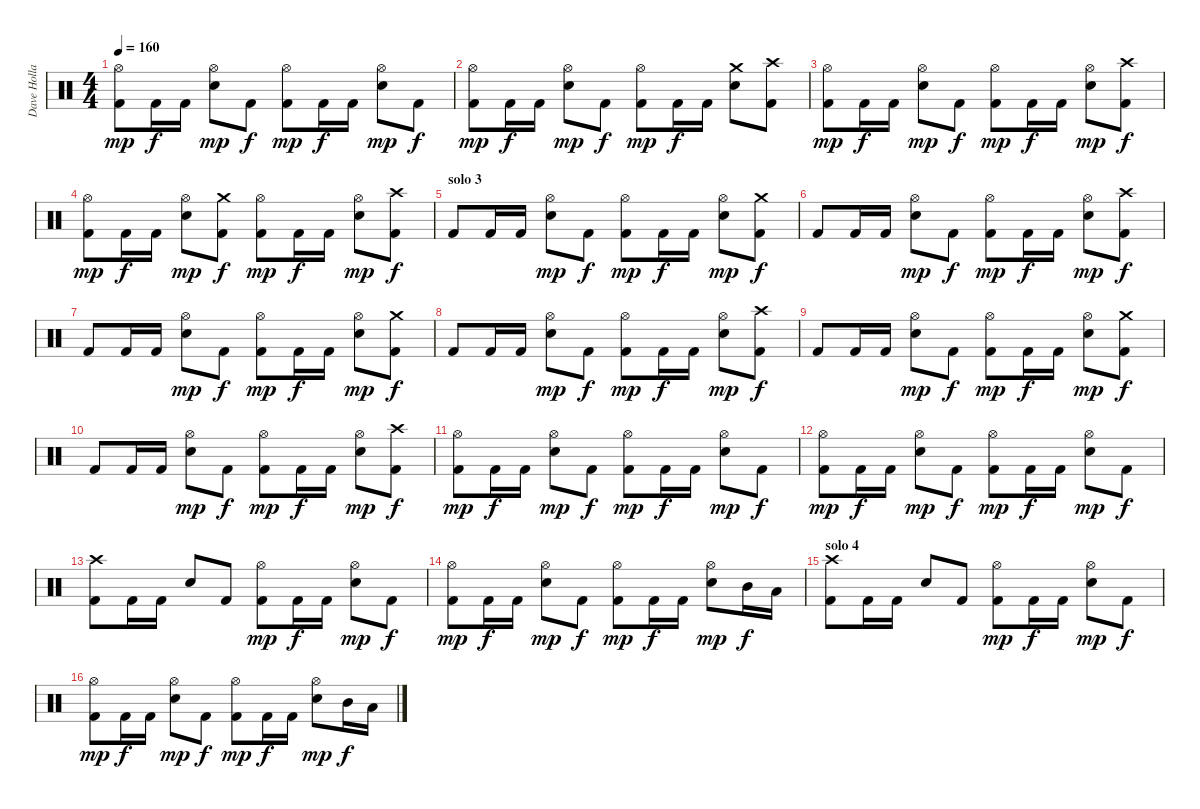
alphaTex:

\track ("Dave Holland" "Dave Holla") {instrument percussion}
\staff {score}
\articulation defaults
\ts (4 4)
\tempo 160
\clef neutral
\ks c
("Kick (hit) 2" "Hi-Hat (open)").8{dy mp} "Kick (hit) 2".16{dy f} "Kick (hit) 2".16 ("Hi-Hat (open)" "Snare (hit) 2").8{dy mp} "Kick (hit) 2".8{dy f} ("Kick (hit) 2" "Hi-Hat (open)").8{dy mp} "Kick (hit) 2".16{dy f} "Kick (hit) 2".16 ("Hi-Hat (open)" "Snare (hit) 2").8{dy mp} "Kick (hit) 2".8{dy f} |
("Kick (hit) 2" "Hi-Hat (open)").8{dy mp} "Kick (hit) 2".16{dy f} "Kick (hit) 2".16 ("Hi-Hat (open)" "Snare (hit) 2").8{dy mp} "Kick (hit) 2".8{dy f} ("Kick (hit) 2" "Hi-Hat (open)").8{dy mp} "Kick (hit) 2".16{dy f} "Kick (hit) 2".16 ("Crash medium (hit)" "Snare (hit) 2").8 ("Kick (hit) 2" "Crash high (hit)").8 |
("Kick (hit) 2" "Hi-Hat (open)").8{dy mp} "Kick (hit) 2".16{dy f} "Kick (hit) 2".16 ("Hi-Hat (open)" "Snare (hit) 2").8{dy mp} "Kick (hit) 2".8{dy f} ("Kick (hit) 2" "Hi-Hat (open)").8{dy mp} "Kick (hit) 2".16{dy f} "Kick (hit) 2".16 ("Hi-Hat (open)" "Snare (hit) 2").8{dy mp} ("Kick (hit) 2" "Crash high (hit)").8{dy f} |
("Kick (hit) 2" "Hi-Hat (open)").8{dy mp} "Kick (hit) 2".16{dy f} "Kick (hit) 2".16 ("Hi-Hat (open)" "Snare (hit) 2").8{dy mp} ("Kick (hit) 2" "Crash medium (hit)").8{dy f} ("Kick (hit) 2" "Hi-Hat (open)").8{dy mp} "Kick (hit) 2".16{dy f} "Kick (hit) 2".16 ("Hi-Hat (open)" "Snare (hit) 2").8{dy mp} ("Kick (hit) 2" "Crash high (hit)").8{dy f} |
\section ("" "solo 3")
"Kick (hit) 2".8 "Kick (hit) 2".16 "Kick (hit) 2".16 ("Hi-Hat (open)" "Snare (hit) 2").8{dy mp} "Kick (hit) 2".8{dy f} ("Kick (hit) 2" "Hi-Hat (open)").8{dy mp} "Kick (hit) 2".16{dy f} "Kick (hit) 2".16 ("Hi-Hat (open)" "Snare (hit) 2").8{dy mp} ("Kick (hit) 2" "Crash medium (hit)").8{dy f} |
"Kick (hit) 2".8 "Kick (hit) 2".16 "Kick (hit) 2".16 ("Hi-Hat (open)" "Snare (hit) 2").8{dy mp} "Kick (hit) 2".8{dy f} ("Kick (hit) 2" "Hi-Hat (open)").8{dy mp} "Kick (hit) 2".16{dy f} "Kick (hit) 2".16 ("Hi-Hat (open)" "Snare (hit) 2").8{dy mp} ("Kick (hit) 2" "Crash high (hit)").8{dy f} |
"Kick (hit) 2".8 "Kick (hit) 2".16 "Kick (hit) 2".16 ("Hi-Hat (open)" "Snare (hit) 2").8{dy mp} "Kick (hit) 2".8{dy f} ("Kick (hit) 2" "Hi-Hat (open)").8{dy mp} "Kick (hit) 2".16{dy f} "Kick (hit) 2".16 ("Hi-Hat (open)" "Snare (hit) 2").8{dy mp} ("Kick (hit) 2" "Crash medium (hit)").8{dy f} |
"Kick (hit) 2".8 "Kick (hit) 2".16 "Kick (hit) 2".16 ("Hi-Hat (open)" "Snare (hit) 2").8{dy mp} "Kick (hit) 2".8{dy f} ("Kick (hit) 2" "Hi-Hat (open)").8{dy mp} "Kick (hit) 2".16{dy f} "Kick (hit) 2".16 ("Hi-Hat (open)" "Snare (hit) 2").8{dy mp} ("Kick (hit) 2" "Crash high (hit)").8{dy f} |
"Kick (hit) 2".8 "Kick (hit) 2".16 "Kick (hit) 2".16 ("Hi-Hat (open)" "Snare (hit) 2").8{dy mp} "Kick (hit) 2".8{dy f} ("Kick (hit) 2" "Hi-Hat (open)").8{dy mp} "Kick (hit) 2".16{dy f} "Kick (hit) 2".16 ("Hi-Hat (open)" "Snare (hit) 2").8{dy mp} ("Kick (hit) 2" "Crash medium (hit)").8{dy f} |
"Kick (hit) 2".8 "Kick (hit) 2".16 "Kick (hit) 2".16 ("Hi-Hat (open)" "Snare (hit) 2").8{dy mp} "Kick (hit) 2".8{dy f} ("Kick (hit) 2" "Hi-Hat (open)").8{dy mp} "Kick (hit) 2".16{dy f} "Kick (hit) 2".16 ("Hi-Hat (open)" "Snare (hit) 2").8{dy mp} ("Kick (hit) 2" "Crash high (hit)").8{dy f} |
("Kick (hit) 2" "Hi-Hat (open)").8{dy mp} "Kick (hit) 2".16{dy f} "Kick (hit) 2".16 ("Hi-Hat (open)" "Snare (hit) 2").8{dy mp} "Kick (hit) 2".8{dy f} ("Kick (hit) 2" "Hi-Hat (open)").8{dy mp} "Kick (hit) 2".16{dy f} "Kick (hit) 2".16 ("Hi-Hat (open)" "Snare (hit) 2").8{dy mp} "Kick (hit) 2".8{dy f} |
("Kick (hit) 2" "Hi-Hat (open)").8{dy mp} "Kick (hit) 2".16{dy f} "Kick (hit) 2".16 ("Hi-Hat (open)" "Snare (hit) 2").8{dy mp} "Kick (hit) 2".8{dy f} ("Kick (hit) 2" "Hi-Hat (open)").8{dy mp} "Kick (hit) 2".16{dy f} "Kick (hit) 2".16 ("Hi-Hat (open)" "Snare (hit) 2").8{dy mp} "Kick (hit) 2".8{dy f} |
("Kick (hit) 2" "Crash high (hit)").8 "Kick (hit) 2".16 "Kick (hit) 2".16 "Snare (hit) 2".8 "Kick (hit) 2".8 ("Kick (hit) 2" "Hi-Hat (open)").8{dy mp} "Kick (hit) 2".16{dy f} "Kick (hit) 2".16 ("Hi-Hat (open)" "Snare (hit) 2").8{dy mp} "Kick (hit) 2".8{dy f} |
("Kick (hit) 2" "Hi-Hat (open)").8{dy mp} "Kick (hit) 2".16{dy f} "Kick (hit) 2".16 ("Hi-Hat (open)" "Snare (hit) 2").8{dy mp} "Kick (hit) 2".8{dy f} ("Kick (hit) 2" "Hi-Hat (open)").8{dy mp} "Kick (hit) 2".16{dy f} "Kick (hit) 2".16 ("Hi-Hat (open)" "Snare (hit) 2").8{dy mp} "Mid Tom (hit)".16{dy f} "Low Tom (hit)".16 |
\section ("" "solo 4")
("Kick (hit) 2" "Crash high (hit)").8 "Kick (hit) 2".16 "Kick (hit) 2".16 "Snare (hit) 2".8 "Kick (hit) 2".8 ("Kick (hit) 2" "Hi-Hat (open)").8{dy mp} "Kick (hit) 2".16{dy f} "Kick (hit) 2".16 ("Hi-Hat (open)" "Snare (hit) 2").8{dy mp} "Kick (hit) 2".8{dy f} |
("Kick (hit) 2" "Hi-Hat (open)").8{dy mp} "Kick (hit) 2".16{dy f} "Kick (hit) 2".16 ("Hi-Hat (open)" "Snare (hit) 2").8{dy mp} "Kick (hit) 2".8{dy f} ("Kick (hit) 2" "Hi-Hat (open)").8{dy mp} "Kick (hit) 2".16{dy f} "Kick (hit) 2".16 ("Hi-Hat (open)" "Snare (hit) 2").8{dy mp} "Mid Tom (hit)".16{dy f} "Low Tom (hit)".16
